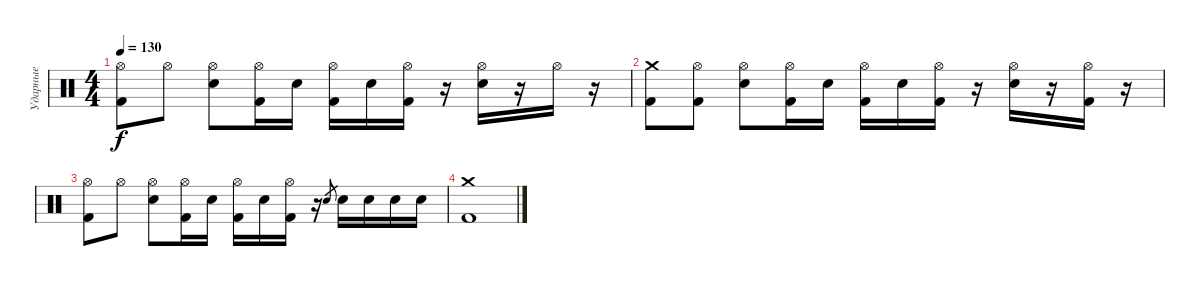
\track ("Ударные" "Ударные") {instrument percussion}
\staff {score}
\articulation defaults
\ts (4 4)
\tempo 130
\clef neutral
\ks c
("Kick (hit) 2" "Hi-Hat (open)").8{dy f} "Hi-Hat (open)".8 ("Electric Snare (hit)" "Hi-Hat (open)").8 ("Kick (hit) 2" "Hi-Hat (open)").16 "Electric Snare (hit)".16 ("Hi-Hat (open)" "Kick (hit) 2").16 "Electric Snare (hit)".16 ("Hi-Hat (open)" "Kick (hit) 2").16 r.16 ("Electric Snare (hit)" "Hi-Hat (open)").16 r.16 "Hi-Hat (open)".16 r.16 |
("Kick (hit) 2" "Crash medium (hit)").8 ("Kick (hit) 2" "Hi-Hat (open)").8 ("Electric Snare (hit)" "Hi-Hat (open)").8 ("Kick (hit) 2" "Hi-Hat (open)").16 "Electric Snare (hit)".16 ("Hi-Hat (open)" "Kick (hit) 2").16 "Electric Snare (hit)".16 ("Hi-Hat (open)" "Kick (hit) 2").16 r.16 ("Electric Snare (hit)" "Hi-Hat (open)").16 r.16 ("Kick (hit) 2" "Hi-Hat (open)").16 r.16 |
("Kick (hit) 2" "Hi-Hat (open)").8 "Hi-Hat (open)".8 ("Electric Snare (hit)" "Hi-Hat (open)").8 ("Kick (hit) 2" "Hi-Hat (open)").16 "Electric Snare (hit)".16 ("Hi-Hat (open)" "Kick (hit) 2").16 "Electric Snare (hit)".16 ("Hi-Hat (open)" "Kick (hit) 2").16 r.16 "Electric Snare (hit)".8{gr} "Electric Snare (hit)".16 "Electric Snare (hit)".16 "Electric Snare (hit)".16 "Electric Snare (hit)".16 |
("Kick (hit) 2" "Crash medium (hit)").1
